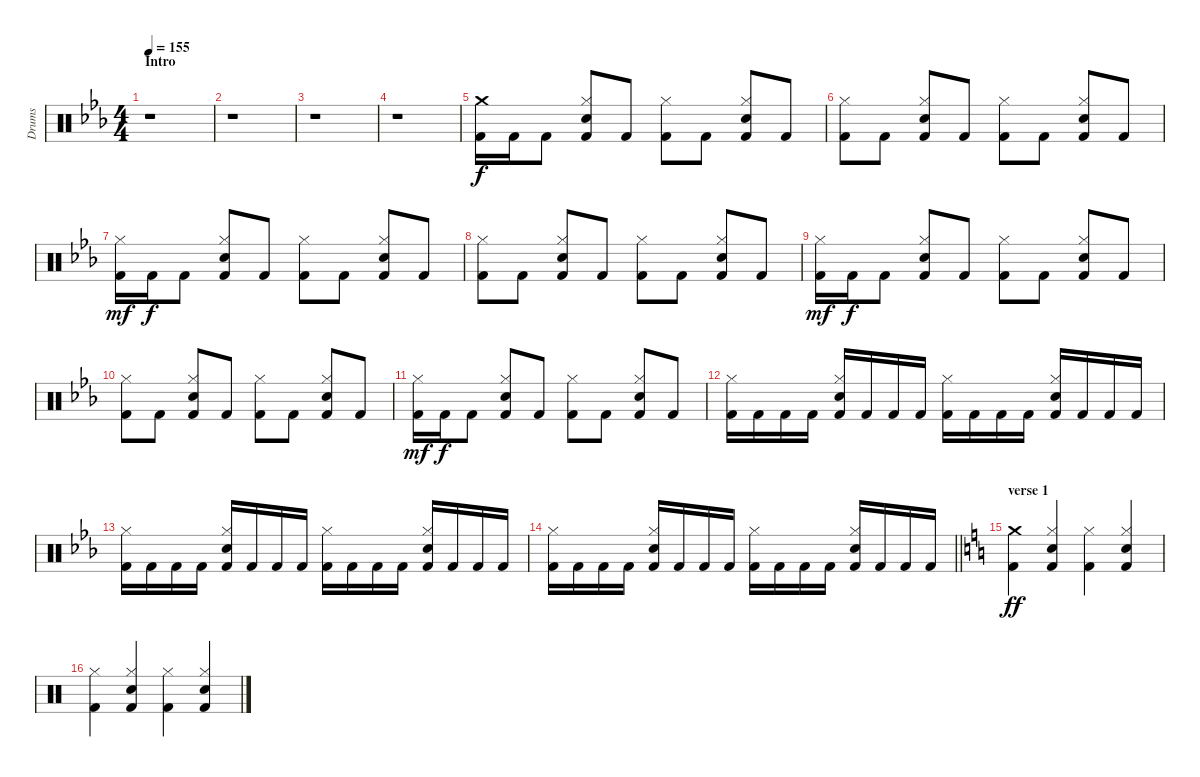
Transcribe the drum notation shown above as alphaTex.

\track ("Drums" "Drums") {instrument percussion}
\staff {score}
\articulation defaults
\ts (4 4)
\section ("" "Intro")
\tempo 155
\clef neutral
\ks cminor
r.1{dy f} |
r.1 |
r.1 |
r.1 |
("Crash medium (hit)" "Kick (hit) 2").16 "Kick (hit) 2".16 "Kick (hit) 2".8 ("Hi-Hat (closed)" "Electric Snare (hit)" "Kick (hit) 2").8 "Kick (hit) 2".8 ("Hi-Hat (closed)" "Kick (hit) 2").8 "Kick (hit) 2".8 ("Hi-Hat (closed)" "Electric Snare (hit)" "Kick (hit) 2").8 "Kick (hit) 2".8 |
("Hi-Hat (closed)" "Kick (hit) 2").8 "Kick (hit) 2".8 ("Hi-Hat (closed)" "Electric Snare (hit)" "Kick (hit) 2").8 "Kick (hit) 2".8 ("Hi-Hat (closed)" "Kick (hit) 2").8 "Kick (hit) 2".8 ("Hi-Hat (closed)" "Electric Snare (hit)" "Kick (hit) 2").8 "Kick (hit) 2".8 |
("Kick (hit) 2" "Hi-Hat (closed)").16{dy mf} "Kick (hit) 2".16{dy f} "Kick (hit) 2".8 ("Hi-Hat (closed)" "Electric Snare (hit)" "Kick (hit) 2").8 "Kick (hit) 2".8 ("Hi-Hat (closed)" "Kick (hit) 2").8 "Kick (hit) 2".8 ("Hi-Hat (closed)" "Electric Snare (hit)" "Kick (hit) 2").8 "Kick (hit) 2".8 |
("Hi-Hat (closed)" "Kick (hit) 2").8 "Kick (hit) 2".8 ("Hi-Hat (closed)" "Electric Snare (hit)" "Kick (hit) 2").8 "Kick (hit) 2".8 ("Hi-Hat (closed)" "Kick (hit) 2").8 "Kick (hit) 2".8 ("Hi-Hat (closed)" "Electric Snare (hit)" "Kick (hit) 2").8 "Kick (hit) 2".8 |
("Kick (hit) 2" "Hi-Hat (closed)").16{dy mf} "Kick (hit) 2".16{dy f} "Kick (hit) 2".8 ("Hi-Hat (closed)" "Electric Snare (hit)" "Kick (hit) 2").8 "Kick (hit) 2".8 ("Hi-Hat (closed)" "Kick (hit) 2").8 "Kick (hit) 2".8 ("Hi-Hat (closed)" "Electric Snare (hit)" "Kick (hit) 2").8 "Kick (hit) 2".8 |
("Hi-Hat (closed)" "Kick (hit) 2").8 "Kick (hit) 2".8 ("Hi-Hat (closed)" "Electric Snare (hit)" "Kick (hit) 2").8 "Kick (hit) 2".8 ("Hi-Hat (closed)" "Kick (hit) 2").8 "Kick (hit) 2".8 ("Hi-Hat (closed)" "Electric Snare (hit)" "Kick (hit) 2").8 "Kick (hit) 2".8 |
("Kick (hit) 2" "Hi-Hat (closed)").16{dy mf} "Kick (hit) 2".16{dy f} "Kick (hit) 2".8 ("Hi-Hat (closed)" "Electric Snare (hit)" "Kick (hit) 2").8 "Kick (hit) 2".8 ("Hi-Hat (closed)" "Kick (hit) 2").8 "Kick (hit) 2".8 ("Hi-Hat (closed)" "Electric Snare (hit)" "Kick (hit) 2").8 "Kick (hit) 2".8 |
("Hi-Hat (closed)" "Kick (hit) 2").16 "Kick (hit) 2".16 "Kick (hit) 2".16 "Kick (hit) 2".16 ("Hi-Hat (closed)" "Electric Snare (hit)" "Kick (hit) 2").16 "Kick (hit) 2".16 "Kick (hit) 2".16 "Kick (hit) 2".16 ("Hi-Hat (closed)" "Kick (hit) 2").16 "Kick (hit) 2".16 "Kick (hit) 2".16 "Kick (hit) 2".16 ("Hi-Hat (closed)" "Electric Snare (hit)" "Kick (hit) 2").16 "Kick (hit) 2".16 "Kick (hit) 2".16 "Kick (hit) 2".16 |
("Hi-Hat (closed)" "Kick (hit) 2").16 "Kick (hit) 2".16 "Kick (hit) 2".16 "Kick (hit) 2".16 ("Hi-Hat (closed)" "Electric Snare (hit)" "Kick (hit) 2").16 "Kick (hit) 2".16 "Kick (hit) 2".16 "Kick (hit) 2".16 ("Hi-Hat (closed)" "Kick (hit) 2").16 "Kick (hit) 2".16 "Kick (hit) 2".16 "Kick (hit) 2".16 ("Hi-Hat (closed)" "Electric Snare (hit)" "Kick (hit) 2").16 "Kick (hit) 2".16 "Kick (hit) 2".16 "Kick (hit) 2".16 |
\barLineRight lightlight
("Hi-Hat (closed)" "Kick (hit) 2").16 "Kick (hit) 2".16 "Kick (hit) 2".16 "Kick (hit) 2".16 ("Hi-Hat (closed)" "Electric Snare (hit)" "Kick (hit) 2").16 "Kick (hit) 2".16 "Kick (hit) 2".16 "Kick (hit) 2".16 ("Hi-Hat (closed)" "Kick (hit) 2").16 "Kick (hit) 2".16 "Kick (hit) 2".16 "Kick (hit) 2".16 ("Hi-Hat (closed)" "Electric Snare (hit)" "Kick (hit) 2").16 "Kick (hit) 2".16 "Kick (hit) 2".16 "Kick (hit) 2".16 |
\section ("" "verse 1")
\ks aminor
("Crash medium (hit)" "Kick (hit) 2").4{dy ff} ("Hi-Hat (closed)" "Electric Snare (hit)" "Kick (hit) 2").4 ("Hi-Hat (closed)" "Kick (hit) 2").4 ("Hi-Hat (closed)" "Electric Snare (hit)" "Kick (hit) 2").4 |
("Hi-Hat (closed)" "Kick (hit) 2").4 ("Hi-Hat (closed)" "Electric Snare (hit)" "Kick (hit) 2").4 ("Hi-Hat (closed)" "Kick (hit) 2").4 ("Hi-Hat (closed)" "Electric Snare (hit)" "Kick (hit) 2").4
